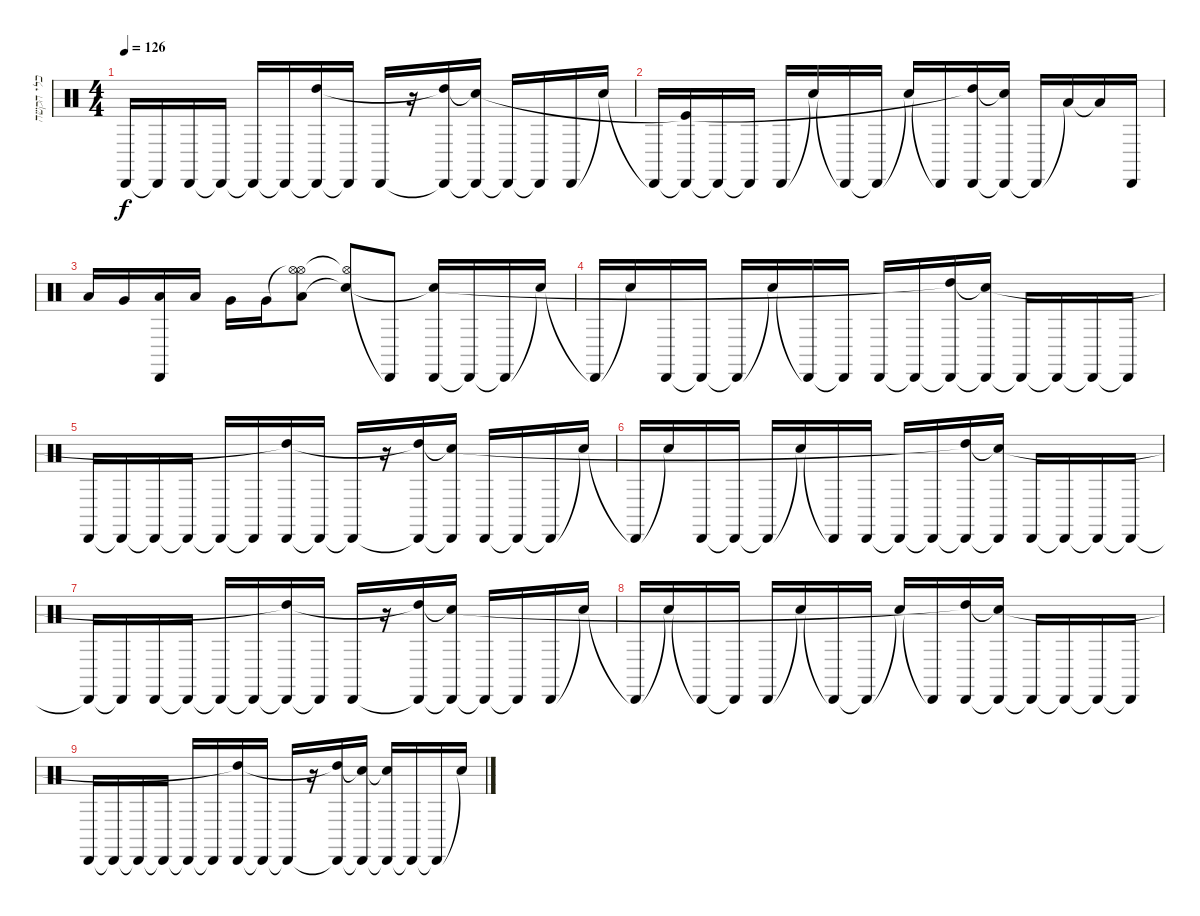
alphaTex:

\track ("כלי הקשה" "כלי הקשה") {instrument percussion}
\staff {score}
\articulation defaults
\ts (4 4)
\tempo 126
\clef neutral
\ks c "Cabasa (hit)"{t}.16{dy f} "Cabasa (hit)"{t}.16 "Cabasa (hit)".16 "Cabasa (hit)"{t}.16 "Cabasa (hit)"{t}.16 "Cabasa (hit)"{t}.16
("Cabasa (hit)"{t} "High Tom (hit)"{t}).16 "Cabasa (hit)"{t}.16 "Cabasa (hit)".16 r.16 ("Cabasa (hit)"{t} "High Tom (hit)"{t}).16 ("Cabasa (hit)"{t} "Snare (hit)"{t}).16 "Cabasa (hit)"{t}.16 "Cabasa (hit)"{t}.16 "Cabasa (hit)".16 "Snare (hit)"{t}.16 |
"Cabasa (hit)"{t}.16 ("Cabasa (hit)"{t} "Kick (hit)"{t}).16 "Cabasa (hit)"{t}.16 "Cabasa (hit)"{t}.16 "Cabasa (hit)".16 "Snare (hit)"{t}.16 "Cabasa (hit)"{t}.16 "Cabasa (hit)"{t}.16 "Snare (hit)"{t}.16 "Cabasa (hit)"{t}.16 ("Cabasa (hit)" "High Tom (hit)"{t}).16 ("Cabasa (hit)"{t} "Snare (hit)"{t}).16 "Cabasa (hit)"{t}.16 "Low Floor Tom (hit)"{t}.16 "Low Floor Tom (hit)"{t}.16 "Cabasa (hit)".16 |
"Low Tom (hit)".16 "Very Low Tom (hit)".16 ("Cabasa (hit)" "Low Floor Tom (hit)").16 "Low Floor Tom (hit)".16 "Very Low Tom (hit)".16 "Very Low Tom (hit)".16 ("Hi-Hat (open)"{t} "Low Floor Tom (hit)" "Hi-Hat (open)").8 ("Hi-Hat (open)"{t} "Snare (hit)"{t}).8 "Cabasa (hit)"{t}.8 ("Cabasa (hit)" "Snare (hit)"{t}).16 "Cabasa (hit)"{t}.16 "Cabasa (hit)"{t}.16 "Snare (hit)"{t}.16 |
"Cabasa (hit)"{t}.16 "Snare (hit)"{t}.16 "Cabasa (hit)".16 "Cabasa (hit)"{t}.16 "Cabasa (hit)"{t}.16 "Snare (hit)"{t}.16 "Cabasa (hit)"{t}.16 "Cabasa (hit)"{t}.16 "Cabasa (hit)".16 "Cabasa (hit)"{t}.16 ("Cabasa (hit)"{t} "High Tom (hit)"{t}).16 ("Cabasa (hit)"{t} "Snare (hit)"{t}).16 "Cabasa (hit)"{t}.16 "Cabasa (hit)"{t}.16 "Cabasa (hit)"{t}.16 "Cabasa (hit)"{t}.16 |
"Cabasa (hit)".16 "Cabasa (hit)"{t}.16 "Cabasa (hit)"{t}.16 "Cabasa (hit)"{t}.16 "Cabasa (hit)"{t}.16 "Cabasa (hit)"{t}.16 ("Cabasa (hit)" "High Tom (hit)"{t}).16 "Cabasa (hit)"{t}.16 "Cabasa (hit)"{t}.16 r.16 ("Cabasa (hit)"{t} "High Tom (hit)"{t}).16 ("Cabasa (hit)"{t} "Snare (hit)"{t}).16 "Cabasa (hit)".16 "Cabasa (hit)"{t}.16 "Cabasa (hit)"{t}.16 "Snare (hit)"{t}.16 |
"Cabasa (hit)"{t}.16 "Snare (hit)"{t}.16 "Cabasa (hit)".16 "Cabasa (hit)"{t}.16 "Cabasa (hit)"{t}.16 "Snare (hit)"{t}.16 "Cabasa (hit)"{t}.16 "Cabasa (hit)".16 "Cabasa (hit)"{t}.16 "Cabasa (hit)"{t}.16 ("Cabasa (hit)"{t} "High Tom (hit)"{t}).16 ("Cabasa (hit)"{t} "Snare (hit)"{t}).16 "Cabasa (hit)".16 "Cabasa (hit)"{t}.16 "Cabasa (hit)"{t}.16 "Cabasa (hit)"{t}.16 |
"Cabasa (hit)"{t}.16 "Cabasa (hit)"{t}.16 "Cabasa (hit)".16 "Cabasa (hit)"{t}.16 "Cabasa (hit)"{t}.16 "Cabasa (hit)"{t}.16 ("Cabasa (hit)"{t} "High Tom (hit)"{t}).16 "Cabasa (hit)"{t}.16 "Cabasa (hit)".16 r.16 ("Cabasa (hit)"{t} "High Tom (hit)"{t}).16 ("Cabasa (hit)"{t} "Snare (hit)"{t}).16 "Cabasa (hit)"{t}.16 "Cabasa (hit)"{t}.16 "Cabasa (hit)".16 "Snare (hit)"{t}.16 |
"Cabasa (hit)"{t}.16 "Snare (hit)"{t}.16 "Cabasa (hit)"{t}.16 "Cabasa (hit)"{t}.16 "Cabasa (hit)".16 "Snare (hit)"{t}.16 "Cabasa (hit)"{t}.16 "Cabasa (hit)"{t}.16 "Snare (hit)"{t}.16 "Cabasa (hit)"{t}.16 ("Cabasa (hit)" "High Tom (hit)"{t}).16 ("Cabasa (hit)"{t} "Snare (hit)"{t}).16 "Cabasa (hit)"{t}.16 "Cabasa (hit)"{t}.16 "Cabasa (hit)"{t}.16 "Cabasa (hit)"{t}.16 |
"Cabasa (hit)".16 "Cabasa (hit)"{t}.16 "Cabasa (hit)"{t}.16 "Cabasa (hit)"{t}.16 "Cabasa (hit)"{t}.16 "Cabasa (hit)"{t}.16 ("Cabasa (hit)" "High Tom (hit)"{t}).16 "Cabasa (hit)"{t}.16 "Cabasa (hit)"{t}.16 r.16 ("Cabasa (hit)"{t} "High Tom (hit)"{t}).16 ("Cabasa (hit)"{t} "Snare (hit)"{t}).16 ("Cabasa (hit)"{t} "Snare (hit)"{t}).16 "Cabasa (hit)"{t}.16 "Cabasa (hit)"{t}.16 "Snare (hit)"{t}.16
